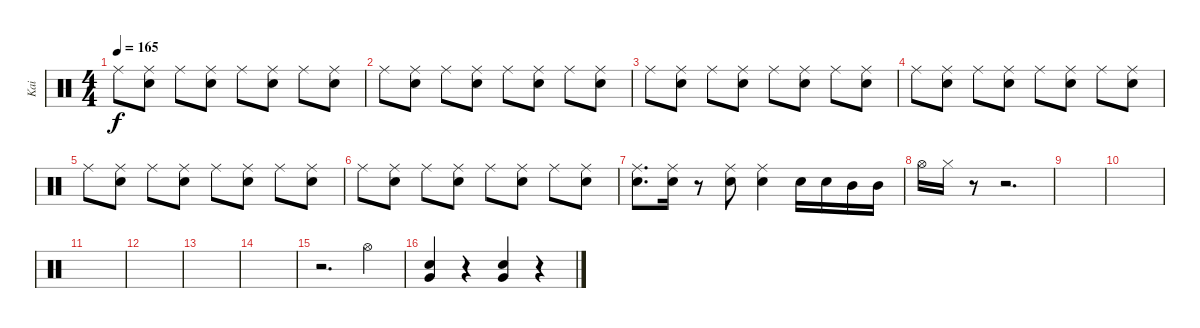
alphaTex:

\track ("Kai" "Kai") {instrument percussion}
\staff {score}
\articulation defaults
\ts (4 4)
\tempo 165
\clef neutral
\ks c "Ride (middle)".8{dy f}
("Ride (middle)" "Snare (hit) 2").8 "Ride (middle)".8 ("Ride (middle)" "Snare (hit) 2").8 "Ride (middle)".8 ("Ride (middle)" "Snare (hit) 2").8 "Ride (middle)".8 ("Ride (middle)" "Snare (hit) 2").8 |
"Ride (middle)".8 ("Ride (middle)" "Snare (hit) 2").8 "Ride (middle)".8 ("Ride (middle)" "Snare (hit) 2").8 "Ride (middle)".8 ("Ride (middle)" "Snare (hit) 2").8 "Ride (middle)".8 ("Ride (middle)" "Snare (hit) 2").8 |
"Ride (middle)".8 ("Ride (middle)" "Snare (hit) 2").8 "Ride (middle)".8 ("Ride (middle)" "Snare (hit) 2").8 "Ride (middle)".8 ("Ride (middle)" "Snare (hit) 2").8 "Ride (middle)".8 ("Ride (middle)" "Snare (hit) 2").8 |
"Ride (middle)".8 ("Ride (middle)" "Snare (hit) 2").8 "Ride (middle)".8 ("Ride (middle)" "Snare (hit) 2").8 "Ride (middle)".8 ("Ride (middle)" "Snare (hit) 2").8 "Ride (middle)".8 ("Ride (middle)" "Snare (hit) 2").8 |
"Ride (middle)".8 ("Ride (middle)" "Snare (hit) 2").8 "Ride (middle)".8 ("Ride (middle)" "Snare (hit) 2").8 "Ride (middle)".8 ("Ride (middle)" "Snare (hit) 2").8 "Ride (middle)".8 ("Ride (middle)" "Snare (hit) 2").8 |
"Ride (middle)".8 ("Ride (middle)" "Snare (hit) 2").8 "Ride (middle)".8 ("Ride (middle)" "Snare (hit) 2").8 "Ride (middle)".8 ("Ride (middle)" "Snare (hit) 2").8 "Ride (middle)".8 ("Ride (middle)" "Snare (hit) 2").8 |
("Ride (middle)" "Snare (hit) 2").8{d} ("Ride (middle)" "Snare (hit) 2").16 r.8 ("Ride (middle)" "Snare (hit) 2").8 ("Ride (middle)" "Snare (hit) 2").4 "Snare (hit) 2".16 "Snare (hit) 2".16 "Mid Tom (hit)".16 "Mid Tom (hit)".16 |
"Hi-Hat (open)".16 "Hi-Hat (closed)".16 r.8 r.2{d} |
|
|
|
|
|
|
r.2{d} "Hi-Hat (open)".4 |
("Very Low Tom (hit)" "Snare (hit) 2").4 r.4 ("Very Low Tom (hit)" "Snare (hit) 2").4 r.4
